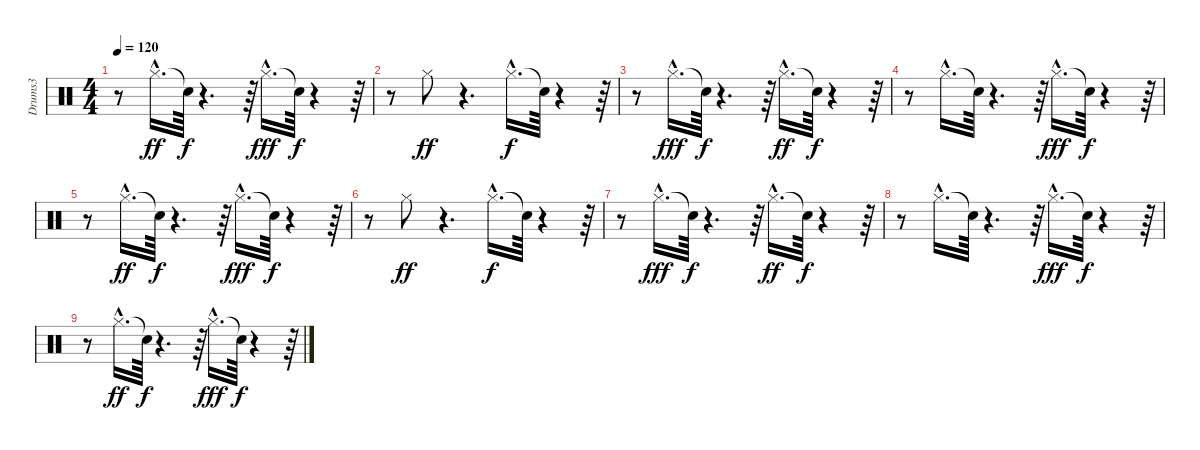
\track ("Drums3" "Drums3") {instrument percussion}
\staff {score}
\articulation defaults
\ts (4 4)
\tempo 120
\clef neutral
\ks c
r.8{dy f} "Hi-Hat (closed)"{hac}.16{d dy ff} "Snare (hit)"{t}.64{dy f} r.4{d} r.64 "Hi-Hat (closed)"{hac}.16{d dy fff} "Snare (hit)"{t}.64{dy f} r.4 r.64 |
r.8 "Hi-Hat (closed)".8{dy ff} r.4{d} "Hi-Hat (closed)"{hac}.16{d dy f} "Snare (hit)"{t}.64 r.4 r.64 |
r.8 "Hi-Hat (closed)"{hac}.16{d dy fff} "Snare (hit)"{t}.64{dy f} r.4{d} r.64 "Hi-Hat (closed)"{hac}.16{d dy ff} "Snare (hit)"{t}.64{dy f} r.4 r.64 |
r.8 "Hi-Hat (closed)"{hac}.16{d} "Snare (hit)"{t}.64 r.4{d} r.64 "Hi-Hat (closed)"{hac}.16{d dy fff} "Snare (hit)"{t}.64{dy f} r.4 r.64 |
r.8 "Hi-Hat (closed)"{hac}.16{d dy ff} "Snare (hit)"{t}.64{dy f} r.4{d} r.64 "Hi-Hat (closed)"{hac}.16{d dy fff} "Snare (hit)"{t}.64{dy f} r.4 r.64 |
r.8 "Hi-Hat (closed)".8{dy ff} r.4{d} "Hi-Hat (closed)"{hac}.16{d dy f} "Snare (hit)"{t}.64 r.4 r.64 |
r.8 "Hi-Hat (closed)"{hac}.16{d dy fff} "Snare (hit)"{t}.64{dy f} r.4{d} r.64 "Hi-Hat (closed)"{hac}.16{d dy ff} "Snare (hit)"{t}.64{dy f} r.4 r.64 |
r.8 "Hi-Hat (closed)"{hac}.16{d} "Snare (hit)"{t}.64 r.4{d} r.64 "Hi-Hat (closed)"{hac}.16{d dy fff} "Snare (hit)"{t}.64{dy f} r.4 r.64 |
r.8 "Hi-Hat (closed)"{hac}.16{d dy ff} "Snare (hit)"{t}.64{dy f} r.4{d} r.64 "Hi-Hat (closed)"{hac}.16{d dy fff} "Snare (hit)"{t}.64{dy f} r.4 r.64
